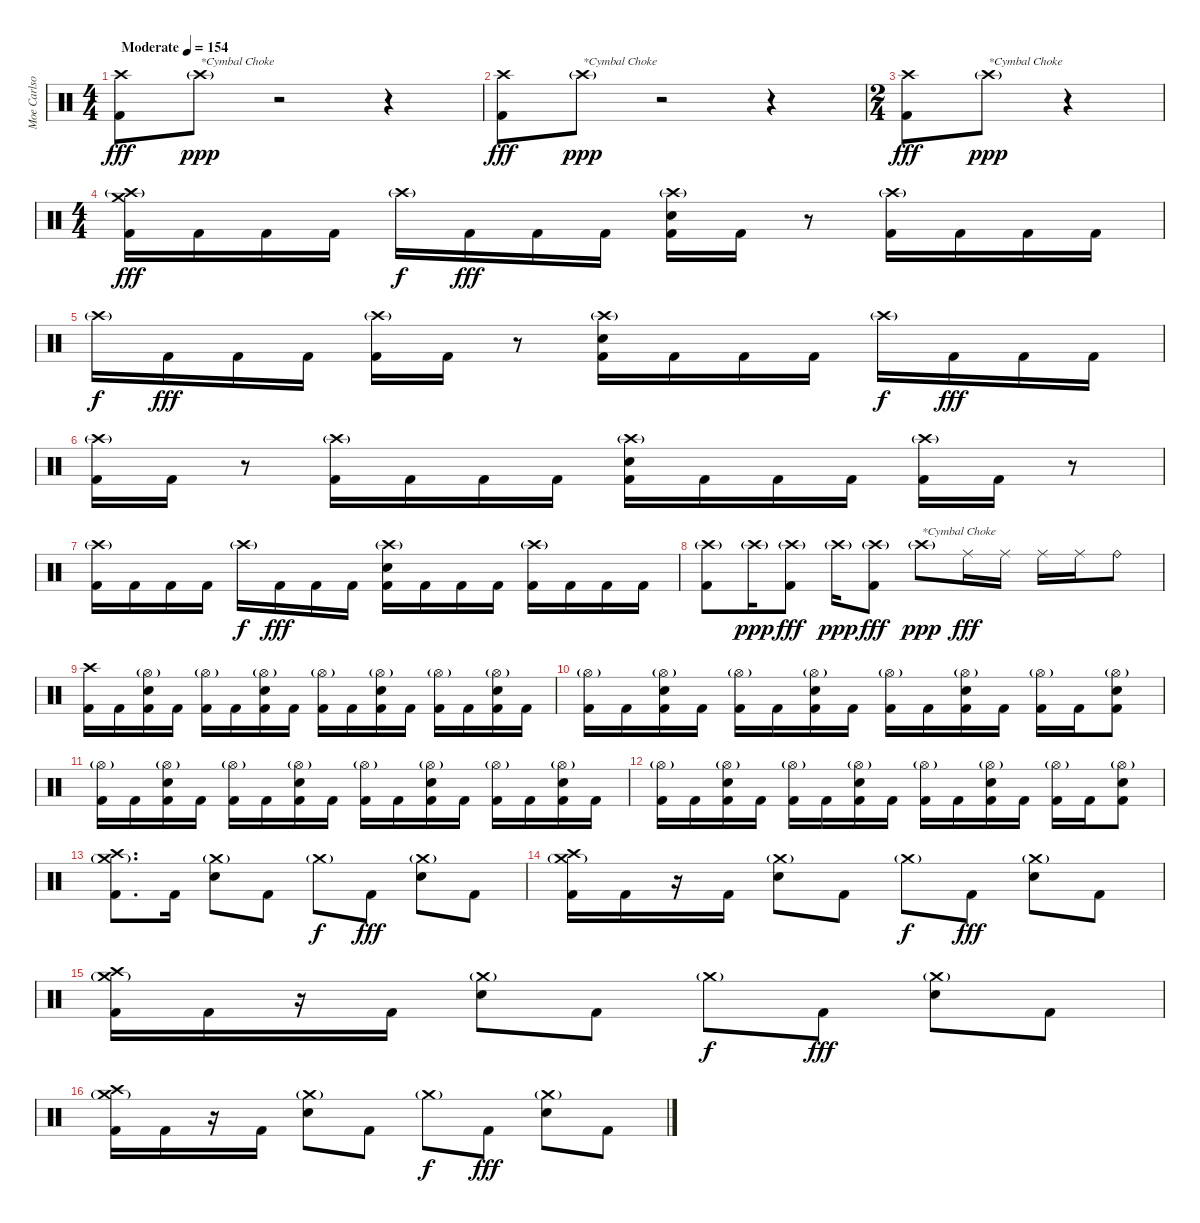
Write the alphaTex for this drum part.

\track ("Moe Carlson" "Moe Carlso") {instrument percussion}
\staff {score}
\articulation defaults
\ts (4 4)
\tempo (154 "Moderate")
\clef neutral
\ks c
("Crash high (hit)" "Kick (hit) 2").8{dy fff} "Crash high (hit)"{g}.8{txt "*Cymbal Choke" dy ppp} r.2 r.4 |
("Crash high (hit)" "Kick (hit) 2").8{dy fff} "Crash high (hit)"{g}.8{txt "*Cymbal Choke" dy ppp} r.2 r.4 |
\ts (2 4)
("Crash high (hit)" "Kick (hit) 2").8{dy fff} "Crash high (hit)"{g}.8{txt "*Cymbal Choke" dy ppp} r.4 |
\ts (4 4)
("Crash high (hit)"{g} "Crash medium (hit)" "Kick (hit) 2").16{dy fff} "Kick (hit) 2".16 "Kick (hit) 2".16 "Kick (hit) 2".16 "Crash high (hit)"{g}.16{dy f} "Kick (hit) 2".16{dy fff} "Kick (hit) 2".16 "Kick (hit) 2".16 ("Crash high (hit)"{g} "Electric Snare (hit)" "Kick (hit) 2").16 "Kick (hit) 2".16 r.8 ("Crash high (hit)"{g} "Kick (hit) 2").16 "Kick (hit) 2".16 "Kick (hit) 2".16 "Kick (hit) 2".16 |
"Crash high (hit)"{g}.16{dy f} "Kick (hit) 2".16{dy fff} "Kick (hit) 2".16 "Kick (hit) 2".16 ("Crash high (hit)"{g} "Kick (hit) 2").16 "Kick (hit) 2".16 r.8 ("Crash high (hit)"{g} "Electric Snare (hit)" "Kick (hit) 2").16 "Kick (hit) 2".16 "Kick (hit) 2".16 "Kick (hit) 2".16 "Crash high (hit)"{g}.16{dy f} "Kick (hit) 2".16{dy fff} "Kick (hit) 2".16 "Kick (hit) 2".16 |
("Crash high (hit)"{g} "Kick (hit) 2").16 "Kick (hit) 2".16 r.8 ("Crash high (hit)"{g} "Kick (hit) 2").16 "Kick (hit) 2".16 "Kick (hit) 2".16 "Kick (hit) 2".16 ("Crash high (hit)"{g} "Electric Snare (hit)" "Kick (hit) 2").16 "Kick (hit) 2".16 "Kick (hit) 2".16 "Kick (hit) 2".16 ("Crash high (hit)"{g} "Kick (hit) 2").16 "Kick (hit) 2".16 r.8 |
("Crash high (hit)"{g} "Kick (hit) 2").16 "Kick (hit) 2".16 "Kick (hit) 2".16 "Kick (hit) 2".16 "Crash high (hit)"{g}.16{dy f} "Kick (hit) 2".16{dy fff} "Kick (hit) 2".16 "Kick (hit) 2".16 ("Crash high (hit)"{g} "Electric Snare (hit)" "Kick (hit) 2").16 "Kick (hit) 2".16 "Kick (hit) 2".16 "Kick (hit) 2".16 ("Crash high (hit)"{g} "Kick (hit) 2").16 "Kick (hit) 2".16 "Kick (hit) 2".16 "Kick (hit) 2".16 |
("Crash high (hit)"{g} "Kick (hit) 2").8 "Crash high (hit)"{g}.16{dy ppp} ("Crash high (hit)"{g} "Kick (hit) 2").8{dy fff} "Crash high (hit)"{g}.16{dy ppp} ("Crash high (hit)"{g} "Kick (hit) 2").8{dy fff} "Crash high (hit)"{g}.8{txt "*Cymbal Choke" dy ppp} "Ride (middle)".16{dy fff} "Ride (middle)".16 "Ride (middle)".16 "Ride (middle)".16 "Ride (bell)".8 |
("Crash high (hit)" "Kick (hit) 2").16 "Kick (hit) 2".16 ("Hi-Hat (open)"{g} "Electric Snare (hit)" "Kick (hit) 2").16 "Kick (hit) 2".16 ("Hi-Hat (open)"{g} "Kick (hit) 2").16 "Kick (hit) 2".16 ("Hi-Hat (open)"{g} "Electric Snare (hit)" "Kick (hit) 2").16 "Kick (hit) 2".16 ("Hi-Hat (open)"{g} "Kick (hit) 2").16 "Kick (hit) 2".16 ("Hi-Hat (open)"{g} "Electric Snare (hit)" "Kick (hit) 2").16 "Kick (hit) 2".16 ("Hi-Hat (open)"{g} "Kick (hit) 2").16 "Kick (hit) 2".16 ("Hi-Hat (open)"{g} "Electric Snare (hit)" "Kick (hit) 2").16 "Kick (hit) 2".16 |
("Hi-Hat (open)"{g} "Kick (hit) 2").16 "Kick (hit) 2".16 ("Hi-Hat (open)"{g} "Electric Snare (hit)" "Kick (hit) 2").16 "Kick (hit) 2".16 ("Hi-Hat (open)"{g} "Kick (hit) 2").16 "Kick (hit) 2".16 ("Hi-Hat (open)"{g} "Electric Snare (hit)" "Kick (hit) 2").16 "Kick (hit) 2".16 ("Hi-Hat (open)"{g} "Kick (hit) 2").16 "Kick (hit) 2".16 ("Hi-Hat (open)"{g} "Electric Snare (hit)" "Kick (hit) 2").16 "Kick (hit) 2".16 ("Hi-Hat (open)"{g} "Kick (hit) 2").16 "Kick (hit) 2".16 ("Hi-Hat (open)"{g} "Electric Snare (hit)" "Kick (hit) 2").8 |
("Hi-Hat (open)"{g} "Kick (hit) 2").16 "Kick (hit) 2".16 ("Hi-Hat (open)"{g} "Electric Snare (hit)" "Kick (hit) 2").16 "Kick (hit) 2".16 ("Hi-Hat (open)"{g} "Kick (hit) 2").16 "Kick (hit) 2".16 ("Hi-Hat (open)"{g} "Electric Snare (hit)" "Kick (hit) 2").16 "Kick (hit) 2".16 ("Hi-Hat (open)"{g} "Kick (hit) 2").16 "Kick (hit) 2".16 ("Hi-Hat (open)"{g} "Electric Snare (hit)" "Kick (hit) 2").16 "Kick (hit) 2".16 ("Hi-Hat (open)"{g} "Kick (hit) 2").16 "Kick (hit) 2".16 ("Hi-Hat (open)"{g} "Electric Snare (hit)" "Kick (hit) 2").16 "Kick (hit) 2".16 |
("Hi-Hat (open)"{g} "Kick (hit) 2").16 "Kick (hit) 2".16 ("Hi-Hat (open)"{g} "Electric Snare (hit)" "Kick (hit) 2").16 "Kick (hit) 2".16 ("Hi-Hat (open)"{g} "Kick (hit) 2").16 "Kick (hit) 2".16 ("Hi-Hat (open)"{g} "Electric Snare (hit)" "Kick (hit) 2").16 "Kick (hit) 2".16 ("Hi-Hat (open)"{g} "Kick (hit) 2").16 "Kick (hit) 2".16 ("Hi-Hat (open)"{g} "Electric Snare (hit)" "Kick (hit) 2").16 "Kick (hit) 2".16 ("Hi-Hat (open)"{g} "Kick (hit) 2").16 "Kick (hit) 2".16 ("Hi-Hat (open)"{g} "Electric Snare (hit)" "Kick (hit) 2").8 |
("Crash medium (hit)"{g} "Crash high (hit)" "Kick (hit) 2").8{d} "Kick (hit) 2".16 ("Crash medium (hit)"{g} "Electric Snare (hit)").8 "Kick (hit) 2".8 "Crash medium (hit)"{g}.8{dy f} "Kick (hit) 2".8{dy fff} ("Crash medium (hit)"{g} "Electric Snare (hit)").8 "Kick (hit) 2".8 |
("Crash medium (hit)"{g} "Crash high (hit)" "Kick (hit) 2").16 "Kick (hit) 2".16 r.16 "Kick (hit) 2".16 ("Crash medium (hit)"{g} "Electric Snare (hit)").8 "Kick (hit) 2".8 "Crash medium (hit)"{g}.8{dy f} "Kick (hit) 2".8{dy fff} ("Crash medium (hit)"{g} "Electric Snare (hit)").8 "Kick (hit) 2".8 |
("Crash medium (hit)"{g} "Crash high (hit)" "Kick (hit) 2").16 "Kick (hit) 2".16 r.16 "Kick (hit) 2".16 ("Crash medium (hit)"{g} "Electric Snare (hit)").8 "Kick (hit) 2".8 "Crash medium (hit)"{g}.8{dy f} "Kick (hit) 2".8{dy fff} ("Crash medium (hit)"{g} "Electric Snare (hit)").8 "Kick (hit) 2".8 |
("Crash medium (hit)"{g} "Crash high (hit)" "Kick (hit) 2").16 "Kick (hit) 2".16 r.16 "Kick (hit) 2".16 ("Crash medium (hit)"{g} "Electric Snare (hit)").8 "Kick (hit) 2".8 "Crash medium (hit)"{g}.8{dy f} "Kick (hit) 2".8{dy fff} ("Crash medium (hit)"{g} "Electric Snare (hit)").8 "Kick (hit) 2".8
